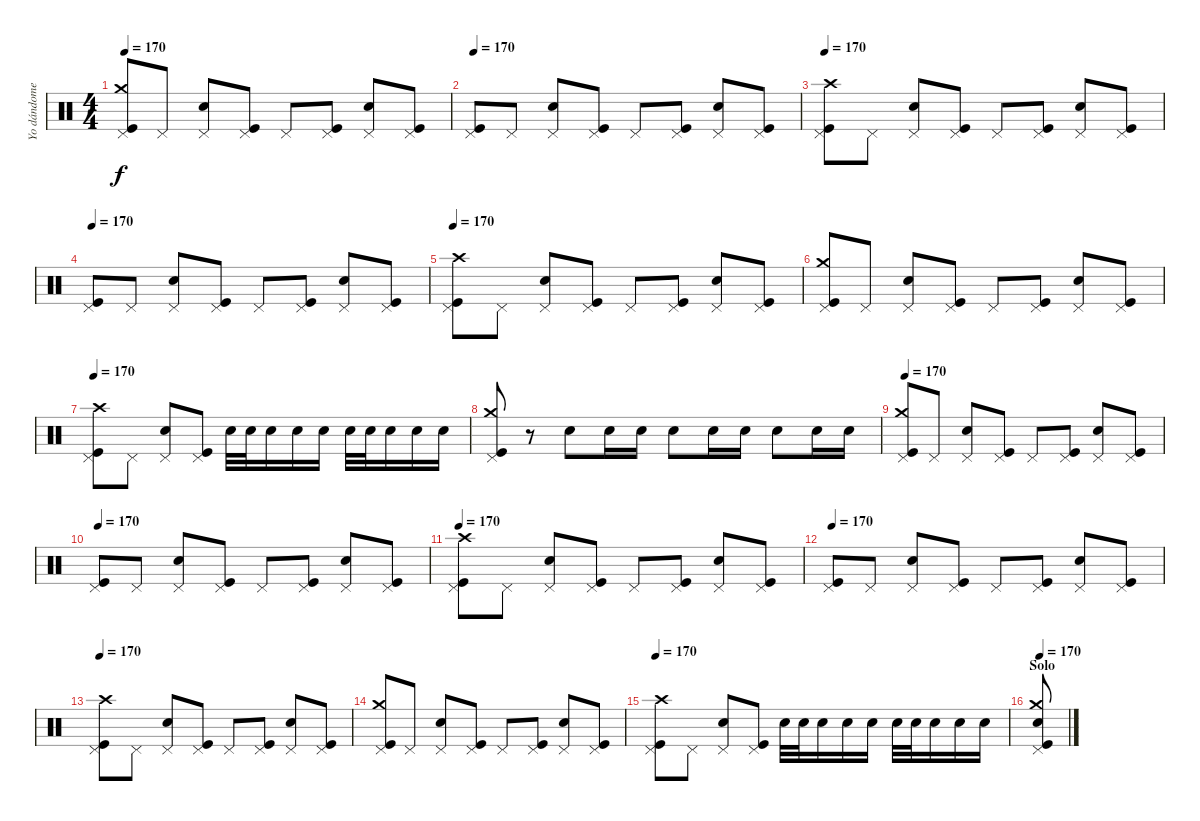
\track ("Yo dándomelas de batero." "Yo dándome") {instrument percussion}
\staff {score}
\articulation defaults
\ts (4 4)
\tempo 170
\clef neutral
\ks c
("Pedal Hi-Hat (hit)" "Crash medium (hit)" "Kick (hit)").8{dy f} "Pedal Hi-Hat (hit)".8 ("Pedal Hi-Hat (hit)" "Electric Snare (hit)").8 ("Pedal Hi-Hat (hit)" "Kick (hit)").8 "Pedal Hi-Hat (hit)".8 ("Pedal Hi-Hat (hit)" "Kick (hit)").8 ("Pedal Hi-Hat (hit)" "Electric Snare (hit)").8 ("Pedal Hi-Hat (hit)" "Kick (hit)").8 |
\tempo 170
("Pedal Hi-Hat (hit)" "Kick (hit)").8 "Pedal Hi-Hat (hit)".8 ("Pedal Hi-Hat (hit)" "Electric Snare (hit)").8 ("Pedal Hi-Hat (hit)" "Kick (hit)").8 "Pedal Hi-Hat (hit)".8 ("Pedal Hi-Hat (hit)" "Kick (hit)").8 ("Pedal Hi-Hat (hit)" "Electric Snare (hit)").8 ("Pedal Hi-Hat (hit)" "Kick (hit)").8 |
\tempo 170
("Pedal Hi-Hat (hit)" "Crash high (hit)" "Kick (hit)").8 "Pedal Hi-Hat (hit)".8 ("Pedal Hi-Hat (hit)" "Electric Snare (hit)").8 ("Pedal Hi-Hat (hit)" "Kick (hit)").8 "Pedal Hi-Hat (hit)".8 ("Pedal Hi-Hat (hit)" "Kick (hit)").8 ("Pedal Hi-Hat (hit)" "Electric Snare (hit)").8 ("Pedal Hi-Hat (hit)" "Kick (hit)").8 |
\tempo 170
("Pedal Hi-Hat (hit)" "Kick (hit)").8 "Pedal Hi-Hat (hit)".8 ("Pedal Hi-Hat (hit)" "Electric Snare (hit)").8 ("Pedal Hi-Hat (hit)" "Kick (hit)").8 "Pedal Hi-Hat (hit)".8 ("Pedal Hi-Hat (hit)" "Kick (hit)").8 ("Pedal Hi-Hat (hit)" "Electric Snare (hit)").8 ("Pedal Hi-Hat (hit)" "Kick (hit)").8 |
\tempo 170
("Pedal Hi-Hat (hit)" "Crash high (hit)" "Kick (hit)").8 "Pedal Hi-Hat (hit)".8 ("Pedal Hi-Hat (hit)" "Electric Snare (hit)").8 ("Pedal Hi-Hat (hit)" "Kick (hit)").8 "Pedal Hi-Hat (hit)".8 ("Pedal Hi-Hat (hit)" "Kick (hit)").8 ("Pedal Hi-Hat (hit)" "Electric Snare (hit)").8 ("Pedal Hi-Hat (hit)" "Kick (hit)").8 |
("Pedal Hi-Hat (hit)" "Crash medium (hit)" "Kick (hit)").8 "Pedal Hi-Hat (hit)".8 ("Pedal Hi-Hat (hit)" "Electric Snare (hit)").8 ("Pedal Hi-Hat (hit)" "Kick (hit)").8 "Pedal Hi-Hat (hit)".8 ("Pedal Hi-Hat (hit)" "Kick (hit)").8 ("Pedal Hi-Hat (hit)" "Electric Snare (hit)").8 ("Pedal Hi-Hat (hit)" "Kick (hit)").8 |
\tempo 170
("Pedal Hi-Hat (hit)" "Crash high (hit)" "Kick (hit)").8 "Pedal Hi-Hat (hit)".8 ("Pedal Hi-Hat (hit)" "Electric Snare (hit)").8 ("Pedal Hi-Hat (hit)" "Kick (hit)").8 "Electric Snare (hit)".32 "Electric Snare (hit)".32 "Electric Snare (hit)".16 "Electric Snare (hit)".16 "Electric Snare (hit)".16 "Electric Snare (hit)".32 "Electric Snare (hit)".32 "Electric Snare (hit)".16 "Electric Snare (hit)".16 "Electric Snare (hit)".16 |
("Pedal Hi-Hat (hit)" "Crash medium (hit)" "Kick (hit)").8 r.8 "Electric Snare (hit)".8 "Electric Snare (hit)".16 "Electric Snare (hit)".16 "Electric Snare (hit)".8 "Electric Snare (hit)".16 "Electric Snare (hit)".16 "Electric Snare (hit)".8 "Electric Snare (hit)".16 "Electric Snare (hit)".16 |
\tempo 170
("Pedal Hi-Hat (hit)" "Crash medium (hit)" "Kick (hit)").8 "Pedal Hi-Hat (hit)".8 ("Pedal Hi-Hat (hit)" "Electric Snare (hit)").8 ("Pedal Hi-Hat (hit)" "Kick (hit)").8 "Pedal Hi-Hat (hit)".8 ("Pedal Hi-Hat (hit)" "Kick (hit)").8 ("Pedal Hi-Hat (hit)" "Electric Snare (hit)").8 ("Pedal Hi-Hat (hit)" "Kick (hit)").8 |
\tempo 170
("Pedal Hi-Hat (hit)" "Kick (hit)").8 "Pedal Hi-Hat (hit)".8 ("Pedal Hi-Hat (hit)" "Electric Snare (hit)").8 ("Pedal Hi-Hat (hit)" "Kick (hit)").8 "Pedal Hi-Hat (hit)".8 ("Pedal Hi-Hat (hit)" "Kick (hit)").8 ("Pedal Hi-Hat (hit)" "Electric Snare (hit)").8 ("Pedal Hi-Hat (hit)" "Kick (hit)").8 |
\tempo 170
("Pedal Hi-Hat (hit)" "Crash high (hit)" "Kick (hit)").8 "Pedal Hi-Hat (hit)".8 ("Pedal Hi-Hat (hit)" "Electric Snare (hit)").8 ("Pedal Hi-Hat (hit)" "Kick (hit)").8 "Pedal Hi-Hat (hit)".8 ("Pedal Hi-Hat (hit)" "Kick (hit)").8 ("Pedal Hi-Hat (hit)" "Electric Snare (hit)").8 ("Pedal Hi-Hat (hit)" "Kick (hit)").8 |
\tempo 170
("Pedal Hi-Hat (hit)" "Kick (hit)").8 "Pedal Hi-Hat (hit)".8 ("Pedal Hi-Hat (hit)" "Electric Snare (hit)").8 ("Pedal Hi-Hat (hit)" "Kick (hit)").8 "Pedal Hi-Hat (hit)".8 ("Pedal Hi-Hat (hit)" "Kick (hit)").8 ("Pedal Hi-Hat (hit)" "Electric Snare (hit)").8 ("Pedal Hi-Hat (hit)" "Kick (hit)").8 |
\tempo 170
("Pedal Hi-Hat (hit)" "Crash high (hit)" "Kick (hit)").8 "Pedal Hi-Hat (hit)".8 ("Pedal Hi-Hat (hit)" "Electric Snare (hit)").8 ("Pedal Hi-Hat (hit)" "Kick (hit)").8 "Pedal Hi-Hat (hit)".8 ("Pedal Hi-Hat (hit)" "Kick (hit)").8 ("Pedal Hi-Hat (hit)" "Electric Snare (hit)").8 ("Pedal Hi-Hat (hit)" "Kick (hit)").8 |
("Pedal Hi-Hat (hit)" "Crash medium (hit)" "Kick (hit)").8 "Pedal Hi-Hat (hit)".8 ("Pedal Hi-Hat (hit)" "Electric Snare (hit)").8 ("Pedal Hi-Hat (hit)" "Kick (hit)").8 "Pedal Hi-Hat (hit)".8 ("Pedal Hi-Hat (hit)" "Kick (hit)").8 ("Pedal Hi-Hat (hit)" "Electric Snare (hit)").8 ("Pedal Hi-Hat (hit)" "Kick (hit)").8 |
\tempo 170
("Pedal Hi-Hat (hit)" "Crash high (hit)" "Kick (hit)").8 "Pedal Hi-Hat (hit)".8 ("Pedal Hi-Hat (hit)" "Electric Snare (hit)").8 ("Pedal Hi-Hat (hit)" "Kick (hit)").8 "Electric Snare (hit)".32 "Electric Snare (hit)".32 "Electric Snare (hit)".16 "Electric Snare (hit)".16 "Electric Snare (hit)".16 "Electric Snare (hit)".32 "Electric Snare (hit)".32 "Electric Snare (hit)".16 "Electric Snare (hit)".16 "Electric Snare (hit)".16 |
\section ("" "Solo")
\tempo 170
("Pedal Hi-Hat (hit)" "Crash medium (hit)" "Electric Snare (hit)" "Kick (hit)").8
